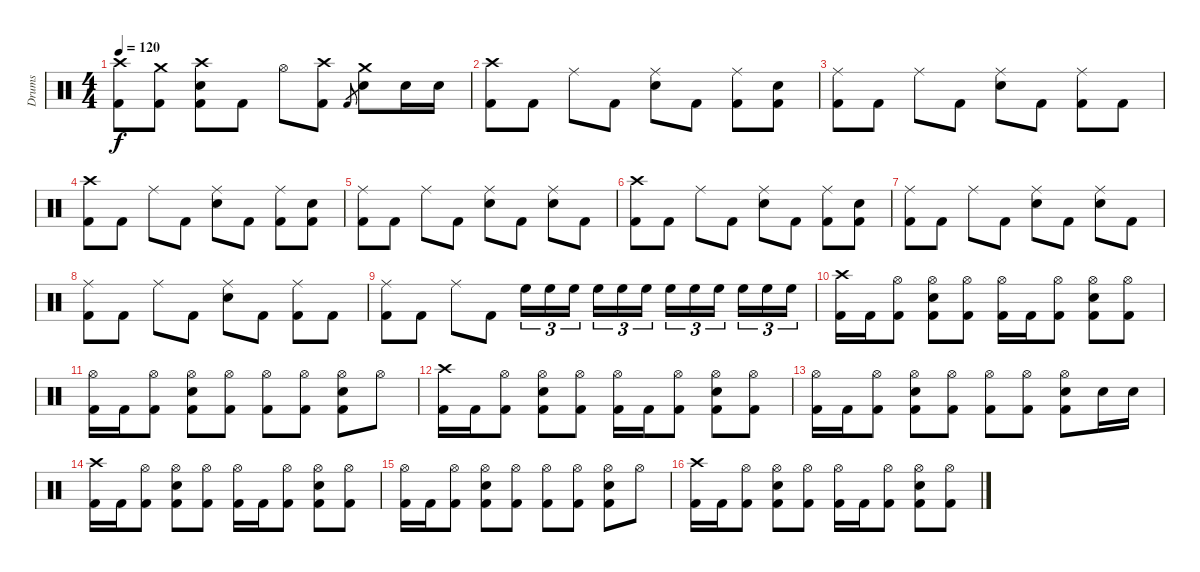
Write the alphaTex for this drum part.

\track ("Drums" "Drums") {instrument percussion}
\staff {score}
\articulation defaults
\ts (4 4)
\tempo 120
\clef neutral
\ks c
("Crash high (hit)" "Kick (hit) 2").8{dy f} ("Crash medium (hit)" "Kick (hit) 2").8 ("Crash high (hit)" "Kick (hit) 2" "Electric Snare (hit)").8 "Kick (hit) 2".8 "Hi-Hat (open)".8 ("Crash high (hit)" "Kick (hit) 2").8 "Kick (hit) 2".8{gr} ("Crash medium (hit)" "Electric Snare (hit)").8 "Electric Snare (hit)".16 "Electric Snare (hit)".16 |
("Crash high (hit)" "Kick (hit) 2").8 "Kick (hit) 2".8 "Ride (middle)".8 "Kick (hit) 2".8 ("Ride (middle)" "Electric Snare (hit)").8 "Kick (hit) 2".8 ("Ride (middle)" "Kick (hit) 2").8 ("Kick (hit) 2" "Electric Snare (hit)").8 |
("Ride (middle)" "Kick (hit) 2").8 "Kick (hit) 2".8 "Ride (middle)".8 "Kick (hit) 2".8 ("Ride (middle)" "Electric Snare (hit)").8 "Kick (hit) 2".8 ("Ride (middle)" "Kick (hit) 2").8 "Kick (hit) 2".8 |
("Crash high (hit)" "Kick (hit) 2").8 "Kick (hit) 2".8 "Ride (middle)".8 "Kick (hit) 2".8 ("Ride (middle)" "Electric Snare (hit)").8 "Kick (hit) 2".8 ("Ride (middle)" "Kick (hit) 2").8 ("Kick (hit) 2" "Electric Snare (hit)").8 |
("Ride (middle)" "Kick (hit) 2").8 "Kick (hit) 2".8 "Ride (middle)".8 "Kick (hit) 2".8 ("Ride (middle)" "Electric Snare (hit)").8 "Kick (hit) 2".8 ("Ride (middle)" "Electric Snare (hit)").8 "Kick (hit) 2".8 |
("Crash high (hit)" "Kick (hit) 2").8 "Kick (hit) 2".8 "Ride (middle)".8 "Kick (hit) 2".8 ("Ride (middle)" "Electric Snare (hit)").8 "Kick (hit) 2".8 ("Ride (middle)" "Kick (hit) 2").8 ("Kick (hit) 2" "Electric Snare (hit)").8 |
("Ride (middle)" "Kick (hit) 2").8 "Kick (hit) 2".8 "Ride (middle)".8 "Kick (hit) 2".8 ("Ride (middle)" "Electric Snare (hit)").8 "Kick (hit) 2".8 ("Ride (middle)" "Electric Snare (hit)").8 "Kick (hit) 2".8 |
("Ride (middle)" "Kick (hit) 2").8 "Kick (hit) 2".8 "Ride (middle)".8 "Kick (hit) 2".8 ("Ride (middle)" "Electric Snare (hit)").8 "Kick (hit) 2".8 ("Ride (middle)" "Kick (hit) 2").8 "Kick (hit) 2".8 |
("Ride (middle)" "Kick (hit) 2").8 "Kick (hit) 2".8 "Ride (middle)".8 "Kick (hit) 2".8 "High Floor Tom (hit)".16{tu (3 2)} "High Floor Tom (hit)".16{tu (3 2)} "High Floor Tom (hit)".16{tu (3 2)} "High Floor Tom (hit)".16{tu (3 2)} "High Floor Tom (hit)".16{tu (3 2)} "High Floor Tom (hit)".16{tu (3 2)} "High Floor Tom (hit)".16{tu (3 2)} "High Floor Tom (hit)".16{tu (3 2)} "High Floor Tom (hit)".16{tu (3 2)} "High Floor Tom (hit)".16{tu (3 2)} "High Floor Tom (hit)".16{tu (3 2)} "High Floor Tom (hit)".16{tu (3 2)} |
("Crash high (hit)" "Kick (hit) 2").16 "Kick (hit) 2".16 ("Hi-Hat (open)" "Kick (hit) 2").8 ("Hi-Hat (open)" "Kick (hit) 2" "Electric Snare (hit)").8 ("Hi-Hat (open)" "Kick (hit) 2").8 ("Hi-Hat (open)" "Kick (hit) 2").16 "Kick (hit) 2".16 ("Hi-Hat (open)" "Kick (hit) 2").8 ("Hi-Hat (open)" "Kick (hit) 2" "Electric Snare (hit)").8 ("Hi-Hat (open)" "Kick (hit) 2").8 |
("Hi-Hat (open)" "Kick (hit) 2").16 "Kick (hit) 2".16 ("Hi-Hat (open)" "Kick (hit) 2").8 ("Hi-Hat (open)" "Kick (hit) 2" "Electric Snare (hit)").8 ("Hi-Hat (open)" "Kick (hit) 2").8 ("Hi-Hat (open)" "Kick (hit) 2").8 ("Hi-Hat (open)" "Kick (hit) 2").8 ("Hi-Hat (open)" "Kick (hit) 2" "Electric Snare (hit)").8 "Hi-Hat (open)".8 |
("Crash high (hit)" "Kick (hit) 2").16 "Kick (hit) 2".16 ("Hi-Hat (open)" "Kick (hit) 2").8 ("Hi-Hat (open)" "Kick (hit) 2" "Electric Snare (hit)").8 ("Hi-Hat (open)" "Kick (hit) 2").8 ("Hi-Hat (open)" "Kick (hit) 2").16 "Kick (hit) 2".16 ("Hi-Hat (open)" "Kick (hit) 2").8 ("Hi-Hat (open)" "Kick (hit) 2" "Electric Snare (hit)").8 ("Hi-Hat (open)" "Kick (hit) 2").8 |
("Hi-Hat (open)" "Kick (hit) 2").16 "Kick (hit) 2".16 ("Hi-Hat (open)" "Kick (hit) 2").8 ("Hi-Hat (open)" "Kick (hit) 2" "Electric Snare (hit)").8 ("Hi-Hat (open)" "Kick (hit) 2").8 ("Hi-Hat (open)" "Kick (hit) 2").8 ("Hi-Hat (open)" "Kick (hit) 2").8 ("Hi-Hat (open)" "Kick (hit) 2" "Electric Snare (hit)").8 "Electric Snare (hit)".16 "Electric Snare (hit)".16 |
("Crash high (hit)" "Kick (hit) 2").16 "Kick (hit) 2".16 ("Hi-Hat (open)" "Kick (hit) 2").8 ("Hi-Hat (open)" "Kick (hit) 2" "Electric Snare (hit)").8 ("Hi-Hat (open)" "Kick (hit) 2").8 ("Hi-Hat (open)" "Kick (hit) 2").16 "Kick (hit) 2".16 ("Hi-Hat (open)" "Kick (hit) 2").8 ("Hi-Hat (open)" "Kick (hit) 2" "Electric Snare (hit)").8 ("Hi-Hat (open)" "Kick (hit) 2").8 |
("Hi-Hat (open)" "Kick (hit) 2").16 "Kick (hit) 2".16 ("Hi-Hat (open)" "Kick (hit) 2").8 ("Hi-Hat (open)" "Kick (hit) 2" "Electric Snare (hit)").8 ("Hi-Hat (open)" "Kick (hit) 2").8 ("Hi-Hat (open)" "Kick (hit) 2").8 ("Hi-Hat (open)" "Kick (hit) 2").8 ("Hi-Hat (open)" "Kick (hit) 2" "Electric Snare (hit)").8 "Hi-Hat (open)".8 |
("Crash high (hit)" "Kick (hit) 2").16 "Kick (hit) 2".16 ("Hi-Hat (open)" "Kick (hit) 2").8 ("Hi-Hat (open)" "Kick (hit) 2" "Electric Snare (hit)").8 ("Hi-Hat (open)" "Kick (hit) 2").8 ("Hi-Hat (open)" "Kick (hit) 2").16 "Kick (hit) 2".16 ("Hi-Hat (open)" "Kick (hit) 2").8 ("Hi-Hat (open)" "Kick (hit) 2" "Electric Snare (hit)").8 ("Hi-Hat (open)" "Kick (hit) 2").8
